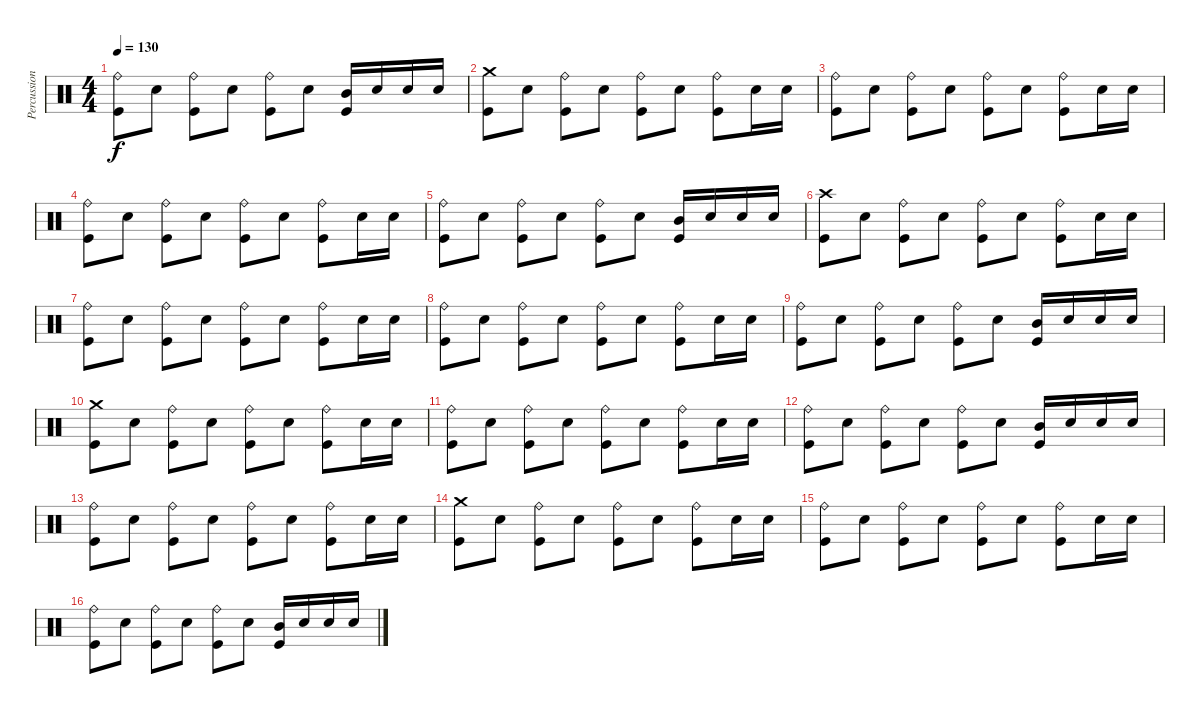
\track ("Percussion" "Percussion") {instrument percussion}
\staff {score}
\articulation defaults
\ts (4 4)
\tempo 130
\clef neutral
\ks c
("Ride (bell)" "Kick (hit)").8{dy f} "Electric Snare (hit)".8 ("Ride (bell)" "Kick (hit)").8 "Electric Snare (hit)".8 ("Ride (bell)" "Kick (hit)").8 "Electric Snare (hit)".8 ("Mid Tom (hit)" "Kick (hit)").16 "Electric Snare (hit)".16 "Electric Snare (hit)".16 "Electric Snare (hit)".16 |
("Crash medium (hit)" "Kick (hit)").8 "Electric Snare (hit)".8 ("Ride (bell)" "Kick (hit)").8 "Electric Snare (hit)".8 ("Ride (bell)" "Kick (hit)").8 "Electric Snare (hit)".8 ("Ride (bell)" "Kick (hit)").8 "Electric Snare (hit)".16 "Electric Snare (hit)".16 |
("Ride (bell)" "Kick (hit)").8 "Electric Snare (hit)".8 ("Ride (bell)" "Kick (hit)").8 "Electric Snare (hit)".8 ("Ride (bell)" "Kick (hit)").8 "Electric Snare (hit)".8 ("Ride (bell)" "Kick (hit)").8 "Electric Snare (hit)".16 "Electric Snare (hit)".16 |
("Ride (bell)" "Kick (hit)").8 "Electric Snare (hit)".8 ("Ride (bell)" "Kick (hit)").8 "Electric Snare (hit)".8 ("Ride (bell)" "Kick (hit)").8 "Electric Snare (hit)".8 ("Ride (bell)" "Kick (hit)").8 "Electric Snare (hit)".16 "Electric Snare (hit)".16 |
("Ride (bell)" "Kick (hit)").8 "Electric Snare (hit)".8 ("Ride (bell)" "Kick (hit)").8 "Electric Snare (hit)".8 ("Ride (bell)" "Kick (hit)").8 "Electric Snare (hit)".8 ("Mid Tom (hit)" "Kick (hit)").16 "Electric Snare (hit)".16 "Electric Snare (hit)".16 "Electric Snare (hit)".16 |
("Crash high (hit)" "Kick (hit)").8 "Electric Snare (hit)".8 ("Ride (bell)" "Kick (hit)").8 "Electric Snare (hit)".8 ("Ride (bell)" "Kick (hit)").8 "Electric Snare (hit)".8 ("Ride (bell)" "Kick (hit)").8 "Electric Snare (hit)".16 "Electric Snare (hit)".16 |
("Ride (bell)" "Kick (hit)").8 "Electric Snare (hit)".8 ("Ride (bell)" "Kick (hit)").8 "Electric Snare (hit)".8 ("Ride (bell)" "Kick (hit)").8 "Electric Snare (hit)".8 ("Ride (bell)" "Kick (hit)").8 "Electric Snare (hit)".16 "Electric Snare (hit)".16 |
("Ride (bell)" "Kick (hit)").8 "Electric Snare (hit)".8 ("Ride (bell)" "Kick (hit)").8 "Electric Snare (hit)".8 ("Ride (bell)" "Kick (hit)").8 "Electric Snare (hit)".8 ("Ride (bell)" "Kick (hit)").8 "Electric Snare (hit)".16 "Electric Snare (hit)".16 |
("Ride (bell)" "Kick (hit)").8 "Electric Snare (hit)".8 ("Ride (bell)" "Kick (hit)").8 "Electric Snare (hit)".8 ("Ride (bell)" "Kick (hit)").8 "Electric Snare (hit)".8 ("Mid Tom (hit)" "Kick (hit)").16 "Electric Snare (hit)".16 "Electric Snare (hit)".16 "Electric Snare (hit)".16 |
("Crash medium (hit)" "Kick (hit)").8 "Electric Snare (hit)".8 ("Ride (bell)" "Kick (hit)").8 "Electric Snare (hit)".8 ("Ride (bell)" "Kick (hit)").8 "Electric Snare (hit)".8 ("Ride (bell)" "Kick (hit)").8 "Electric Snare (hit)".16 "Electric Snare (hit)".16 |
("Ride (bell)" "Kick (hit)").8 "Electric Snare (hit)".8 ("Ride (bell)" "Kick (hit)").8 "Electric Snare (hit)".8 ("Ride (bell)" "Kick (hit)").8 "Electric Snare (hit)".8 ("Ride (bell)" "Kick (hit)").8 "Electric Snare (hit)".16 "Electric Snare (hit)".16 |
("Ride (bell)" "Kick (hit)").8 "Electric Snare (hit)".8 ("Ride (bell)" "Kick (hit)").8 "Electric Snare (hit)".8 ("Ride (bell)" "Kick (hit)").8 "Electric Snare (hit)".8 ("Mid Tom (hit)" "Kick (hit)").16 "Electric Snare (hit)".16 "Electric Snare (hit)".16 "Electric Snare (hit)".16 |
("Ride (bell)" "Kick (hit)").8 "Electric Snare (hit)".8 ("Ride (bell)" "Kick (hit)").8 "Electric Snare (hit)".8 ("Ride (bell)" "Kick (hit)").8 "Electric Snare (hit)".8 ("Ride (bell)" "Kick (hit)").8 "Electric Snare (hit)".16 "Electric Snare (hit)".16 |
("Crash medium (hit)" "Kick (hit)").8 "Electric Snare (hit)".8 ("Ride (bell)" "Kick (hit)").8 "Electric Snare (hit)".8 ("Ride (bell)" "Kick (hit)").8 "Electric Snare (hit)".8 ("Ride (bell)" "Kick (hit)").8 "Electric Snare (hit)".16 "Electric Snare (hit)".16 |
("Ride (bell)" "Kick (hit)").8 "Electric Snare (hit)".8 ("Ride (bell)" "Kick (hit)").8 "Electric Snare (hit)".8 ("Ride (bell)" "Kick (hit)").8 "Electric Snare (hit)".8 ("Ride (bell)" "Kick (hit)").8 "Electric Snare (hit)".16 "Electric Snare (hit)".16 |
("Ride (bell)" "Kick (hit)").8 "Electric Snare (hit)".8 ("Ride (bell)" "Kick (hit)").8 "Electric Snare (hit)".8 ("Ride (bell)" "Kick (hit)").8 "Electric Snare (hit)".8 ("Mid Tom (hit)" "Kick (hit)").16 "Electric Snare (hit)".16 "Electric Snare (hit)".16 "Electric Snare (hit)".16
